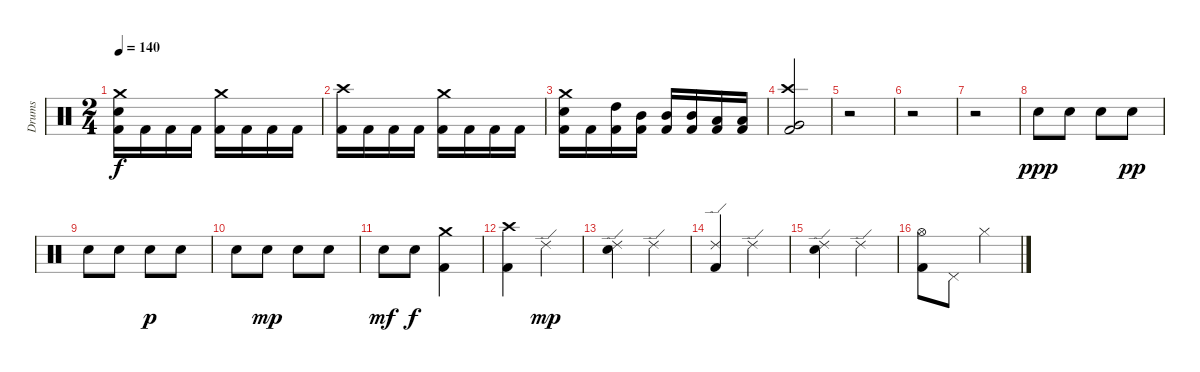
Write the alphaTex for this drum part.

\track ("Drums" "Drums") {instrument percussion}
\staff {score}
\articulation defaults
\ts (2 4)
\tempo 140
\clef neutral
\ks c
("Kick (hit) 2" "Electric Snare (hit)" "Crash medium (hit)").16{dy f} "Kick (hit) 2".16 "Kick (hit) 2".16 "Kick (hit) 2".16 ("Kick (hit) 2" "Crash medium (hit)").16 "Kick (hit) 2".16 "Kick (hit) 2".16 "Kick (hit) 2".16 |
("Kick (hit) 2" "Crash high (hit)").16 "Kick (hit) 2".16 "Kick (hit) 2".16 "Kick (hit) 2".16 ("Kick (hit) 2" "Crash medium (hit)").16 "Kick (hit) 2".16 "Kick (hit) 2".16 "Kick (hit) 2".16 |
("Kick (hit) 2" "Electric Snare (hit)" "Crash medium (hit)").16 "Kick (hit) 2".16 ("Kick (hit) 2" "High Tom (hit)").16 ("Kick (hit) 2" "Mid Tom (hit)").16 ("Kick (hit) 2" "Mid Tom (hit)").16 ("Kick (hit) 2" "Mid Tom (hit)").16 ("Kick (hit) 2" "Low Tom (hit)").16 ("Kick (hit) 2" "Low Tom (hit)").16 |
("Kick (hit) 2" "Very Low Tom (hit)" "Crash high (hit)").2 |
r.2 |
r.2 |
r.2 |
"Electric Snare (hit)".8{dy ppp} "Electric Snare (hit)".8 "Electric Snare (hit)".8 "Electric Snare (hit)".8{dy pp} |
"Electric Snare (hit)".8 "Electric Snare (hit)".8 "Electric Snare (hit)".8{dy p} "Electric Snare (hit)".8 |
"Electric Snare (hit)".8 "Electric Snare (hit)".8{dy mp} "Electric Snare (hit)".8 "Electric Snare (hit)".8 |
"Electric Snare (hit)".8{dy mf} "Electric Snare (hit)".8{dy f} ("Kick (hit) 2" "Crash medium (hit)").4 |
("Kick (hit) 2" "Crash high (hit)").4 "Ride (edge) 2".4{dy mp} |
("Electric Snare (hit)" "Ride (edge) 2").4 "Ride (edge) 2".4 |
("Kick (hit) 2" "Ride (edge) 2").4 "Ride (edge) 2".4 |
("Electric Snare (hit)" "Ride (edge) 2").4 "Ride (edge) 2".4 |
("Kick (hit) 2" "Hi-Hat (open)").8 "Pedal Hi-Hat (hit)".8 "Hi-Hat (closed)".4
